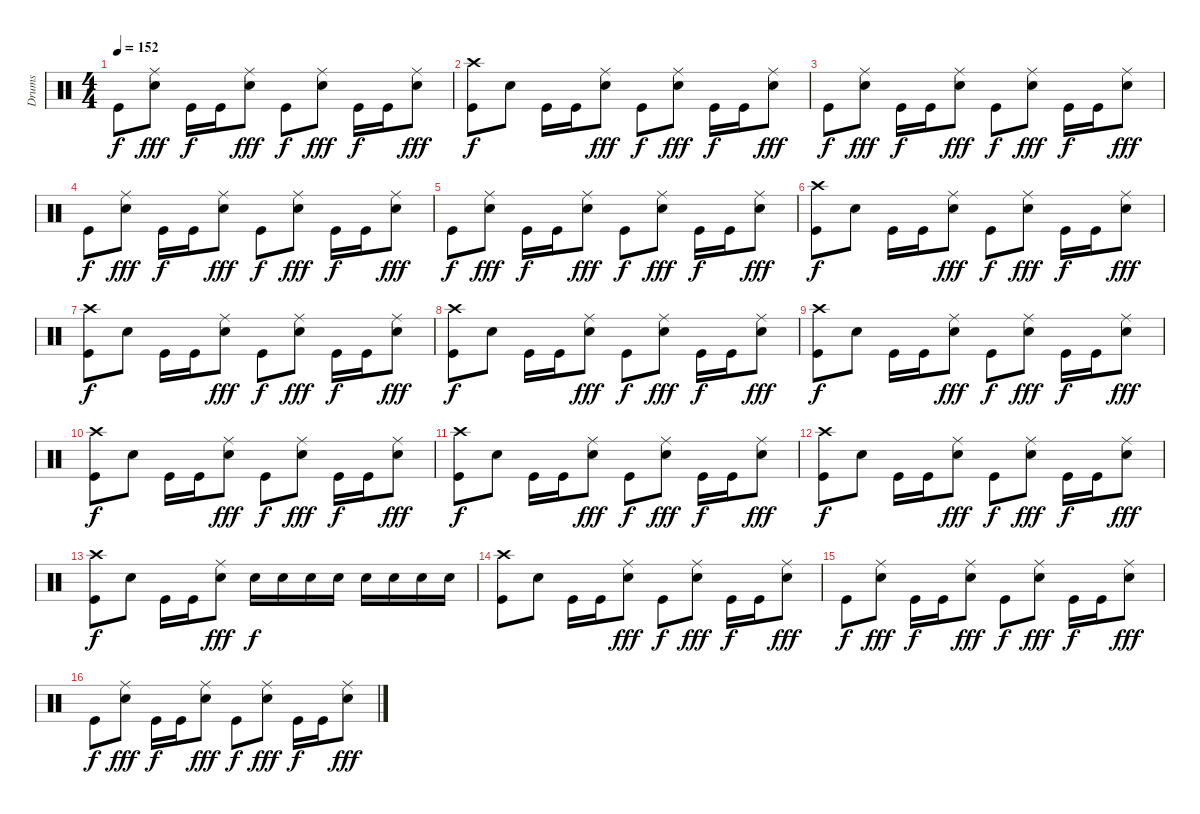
\track ("Drums" "Drums") {instrument percussion}
\staff {score}
\articulation defaults
\ts (4 4)
\tempo 152
\clef neutral
\ks c "Kick (hit)".8{dy f}
("Ride (middle)" "Snare (hit) 2").8{dy fff} "Kick (hit)".16{dy f} "Kick (hit)".16 ("Ride (middle)" "Snare (hit) 2").8{dy fff} "Kick (hit)".8{dy f} ("Ride (middle)" "Snare (hit) 2").8{dy fff} "Kick (hit)".16{dy f} "Kick (hit)".16 ("Ride (middle)" "Snare (hit) 2").8{dy fff} |
("Crash high (hit)" "Kick (hit)").8{dy f} "Snare (hit) 2".8 "Kick (hit)".16 "Kick (hit)".16 ("Ride (middle)" "Snare (hit) 2").8{dy fff} "Kick (hit)".8{dy f} ("Ride (middle)" "Snare (hit) 2").8{dy fff} "Kick (hit)".16{dy f} "Kick (hit)".16 ("Ride (middle)" "Snare (hit) 2").8{dy fff} |
"Kick (hit)".8{dy f} ("Ride (middle)" "Snare (hit) 2").8{dy fff} "Kick (hit)".16{dy f} "Kick (hit)".16 ("Ride (middle)" "Snare (hit) 2").8{dy fff} "Kick (hit)".8{dy f} ("Ride (middle)" "Snare (hit) 2").8{dy fff} "Kick (hit)".16{dy f} "Kick (hit)".16 ("Ride (middle)" "Snare (hit) 2").8{dy fff} |
"Kick (hit)".8{dy f} ("Ride (middle)" "Snare (hit) 2").8{dy fff} "Kick (hit)".16{dy f} "Kick (hit)".16 ("Ride (middle)" "Snare (hit) 2").8{dy fff} "Kick (hit)".8{dy f} ("Ride (middle)" "Snare (hit) 2").8{dy fff} "Kick (hit)".16{dy f} "Kick (hit)".16 ("Ride (middle)" "Snare (hit) 2").8{dy fff} |
"Kick (hit)".8{dy f} ("Ride (middle)" "Snare (hit) 2").8{dy fff} "Kick (hit)".16{dy f} "Kick (hit)".16 ("Ride (middle)" "Snare (hit) 2").8{dy fff} "Kick (hit)".8{dy f} ("Ride (middle)" "Snare (hit) 2").8{dy fff} "Kick (hit)".16{dy f} "Kick (hit)".16 ("Ride (middle)" "Snare (hit) 2").8{dy fff} |
("Crash high (hit)" "Kick (hit)").8{dy f} "Snare (hit) 2".8 "Kick (hit)".16 "Kick (hit)".16 ("Ride (middle)" "Snare (hit) 2").8{dy fff} "Kick (hit)".8{dy f} ("Ride (middle)" "Snare (hit) 2").8{dy fff} "Kick (hit)".16{dy f} "Kick (hit)".16 ("Ride (middle)" "Snare (hit) 2").8{dy fff} |
("Crash high (hit)" "Kick (hit)").8{dy f} "Snare (hit) 2".8 "Kick (hit)".16 "Kick (hit)".16 ("Ride (middle)" "Snare (hit) 2").8{dy fff} "Kick (hit)".8{dy f} ("Ride (middle)" "Snare (hit) 2").8{dy fff} "Kick (hit)".16{dy f} "Kick (hit)".16 ("Ride (middle)" "Snare (hit) 2").8{dy fff} |
("Crash high (hit)" "Kick (hit)").8{dy f} "Snare (hit) 2".8 "Kick (hit)".16 "Kick (hit)".16 ("Ride (middle)" "Snare (hit) 2").8{dy fff} "Kick (hit)".8{dy f} ("Ride (middle)" "Snare (hit) 2").8{dy fff} "Kick (hit)".16{dy f} "Kick (hit)".16 ("Ride (middle)" "Snare (hit) 2").8{dy fff} |
("Crash high (hit)" "Kick (hit)").8{dy f} "Snare (hit) 2".8 "Kick (hit)".16 "Kick (hit)".16 ("Ride (middle)" "Snare (hit) 2").8{dy fff} "Kick (hit)".8{dy f} ("Ride (middle)" "Snare (hit) 2").8{dy fff} "Kick (hit)".16{dy f} "Kick (hit)".16 ("Ride (middle)" "Snare (hit) 2").8{dy fff} |
("Crash high (hit)" "Kick (hit)").8{dy f} "Snare (hit) 2".8 "Kick (hit)".16 "Kick (hit)".16 ("Ride (middle)" "Snare (hit) 2").8{dy fff} "Kick (hit)".8{dy f} ("Ride (middle)" "Snare (hit) 2").8{dy fff} "Kick (hit)".16{dy f} "Kick (hit)".16 ("Ride (middle)" "Snare (hit) 2").8{dy fff} |
("Crash high (hit)" "Kick (hit)").8{dy f} "Snare (hit) 2".8 "Kick (hit)".16 "Kick (hit)".16 ("Ride (middle)" "Snare (hit) 2").8{dy fff} "Kick (hit)".8{dy f} ("Ride (middle)" "Snare (hit) 2").8{dy fff} "Kick (hit)".16{dy f} "Kick (hit)".16 ("Ride (middle)" "Snare (hit) 2").8{dy fff} |
("Crash high (hit)" "Kick (hit)").8{dy f} "Snare (hit) 2".8 "Kick (hit)".16 "Kick (hit)".16 ("Ride (middle)" "Snare (hit) 2").8{dy fff} "Kick (hit)".8{dy f} ("Ride (middle)" "Snare (hit) 2").8{dy fff} "Kick (hit)".16{dy f} "Kick (hit)".16 ("Ride (middle)" "Snare (hit) 2").8{dy fff} |
("Crash high (hit)" "Kick (hit)").8{dy f} "Snare (hit) 2".8 "Kick (hit)".16 "Kick (hit)".16 ("Ride (middle)" "Snare (hit) 2").8{dy fff} "Snare (hit) 2".16{dy f} "Snare (hit) 2".16 "Snare (hit) 2".16 "Snare (hit) 2".16 "Snare (hit) 2".16 "Snare (hit) 2".16 "Snare (hit) 2".16 "Snare (hit) 2".16 |
("Crash high (hit)" "Kick (hit)").8 "Snare (hit) 2".8 "Kick (hit)".16 "Kick (hit)".16 ("Ride (middle)" "Snare (hit) 2").8{dy fff} "Kick (hit)".8{dy f} ("Ride (middle)" "Snare (hit) 2").8{dy fff} "Kick (hit)".16{dy f} "Kick (hit)".16 ("Ride (middle)" "Snare (hit) 2").8{dy fff} |
"Kick (hit)".8{dy f} ("Ride (middle)" "Snare (hit) 2").8{dy fff} "Kick (hit)".16{dy f} "Kick (hit)".16 ("Ride (middle)" "Snare (hit) 2").8{dy fff} "Kick (hit)".8{dy f} ("Ride (middle)" "Snare (hit) 2").8{dy fff} "Kick (hit)".16{dy f} "Kick (hit)".16 ("Ride (middle)" "Snare (hit) 2").8{dy fff} |
"Kick (hit)".8{dy f} ("Ride (middle)" "Snare (hit) 2").8{dy fff} "Kick (hit)".16{dy f} "Kick (hit)".16 ("Ride (middle)" "Snare (hit) 2").8{dy fff} "Kick (hit)".8{dy f} ("Ride (middle)" "Snare (hit) 2").8{dy fff} "Kick (hit)".16{dy f} "Kick (hit)".16 ("Ride (middle)" "Snare (hit) 2").8{dy fff}
